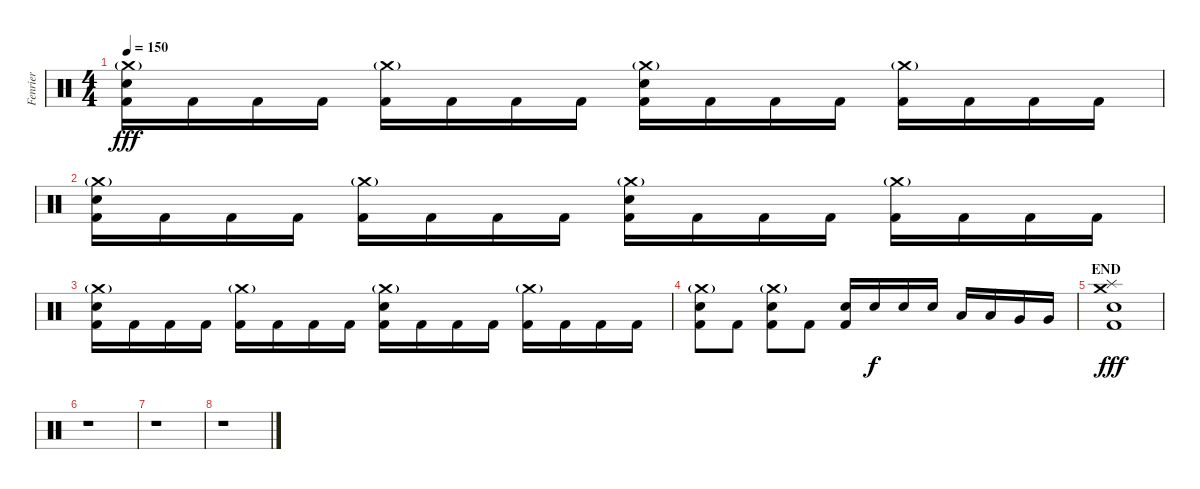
\track ("Fenrier" "Fenrier") {instrument percussion}
\staff {score}
\articulation defaults
\ts (4 4)
\tempo 150
\clef neutral
\ks c
("Crash medium (hit)"{g} "Electric Snare (hit)" "Kick (hit) 2").16{dy fff} "Kick (hit) 2".16 "Kick (hit) 2".16 "Kick (hit) 2".16 ("Crash medium (hit)"{g} "Kick (hit) 2").16 "Kick (hit) 2".16 "Kick (hit) 2".16 "Kick (hit) 2".16 ("Crash medium (hit)"{g} "Electric Snare (hit)" "Kick (hit) 2").16 "Kick (hit) 2".16 "Kick (hit) 2".16 "Kick (hit) 2".16 ("Crash medium (hit)"{g} "Kick (hit) 2").16 "Kick (hit) 2".16 "Kick (hit) 2".16 "Kick (hit) 2".16 |
("Crash medium (hit)"{g} "Electric Snare (hit)" "Kick (hit) 2").16 "Kick (hit) 2".16 "Kick (hit) 2".16 "Kick (hit) 2".16 ("Crash medium (hit)"{g} "Kick (hit) 2").16 "Kick (hit) 2".16 "Kick (hit) 2".16 "Kick (hit) 2".16 ("Crash medium (hit)"{g} "Electric Snare (hit)" "Kick (hit) 2").16 "Kick (hit) 2".16 "Kick (hit) 2".16 "Kick (hit) 2".16 ("Crash medium (hit)"{g} "Kick (hit) 2").16 "Kick (hit) 2".16 "Kick (hit) 2".16 "Kick (hit) 2".16 |
("Crash medium (hit)"{g} "Electric Snare (hit)" "Kick (hit) 2").16 "Kick (hit) 2".16 "Kick (hit) 2".16 "Kick (hit) 2".16 ("Crash medium (hit)"{g} "Kick (hit) 2").16 "Kick (hit) 2".16 "Kick (hit) 2".16 "Kick (hit) 2".16 ("Crash medium (hit)"{g} "Electric Snare (hit)" "Kick (hit) 2").16 "Kick (hit) 2".16 "Kick (hit) 2".16 "Kick (hit) 2".16 ("Crash medium (hit)"{g} "Kick (hit) 2").16 "Kick (hit) 2".16 "Kick (hit) 2".16 "Kick (hit) 2".16 |
("Crash medium (hit)"{g} "Electric Snare (hit)" "Kick (hit) 2").8 "Kick (hit) 2".8 ("Crash medium (hit)"{g} "Electric Snare (hit)" "Kick (hit) 2").8 "Kick (hit) 2".8 ("Electric Snare (hit)" "Kick (hit) 2").16 "Electric Snare (hit)".16{dy f} "Electric Snare (hit)".16 "Electric Snare (hit)".16 "Low Tom (hit)".16 "Low Tom (hit)".16 "Very Low Tom (hit)".16 "Very Low Tom (hit)".16 |
\section ("" "END")
("Crash medium (hit)" "Splash (hit)" "Electric Snare (hit)" "Kick (hit) 2").1{dy fff} |
r.1 |
r.1 |
r.1
